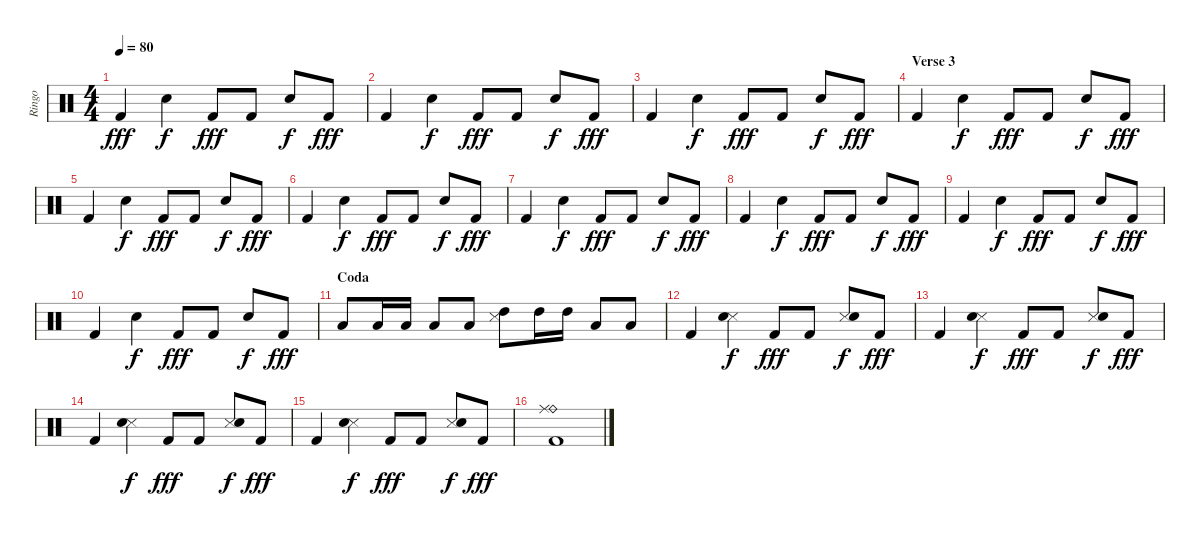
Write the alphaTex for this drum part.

\track ("Ringo" "Ringo") {instrument percussion}
\staff {score}
\articulation defaults
\ts (4 4)
\tempo 80
\clef neutral
\ks c "Kick (hit) 2".4{dy fff} "Snare (hit) 2".4{dy f} "Kick (hit) 2".8{dy fff} "Kick (hit) 2".8 "Snare (hit) 2".8{dy f} "Kick (hit) 2".8{dy fff}
|
"Kick (hit) 2".4 "Snare (hit) 2".4{dy f} "Kick (hit) 2".8{dy fff} "Kick (hit) 2".8 "Snare (hit) 2".8{dy f} "Kick (hit) 2".8{dy fff} |
"Kick (hit) 2".4 "Snare (hit) 2".4{dy f} "Kick (hit) 2".8{dy fff} "Kick (hit) 2".8 "Snare (hit) 2".8{dy f} "Kick (hit) 2".8{dy fff} |
\section ("" "Verse 3")
"Kick (hit) 2".4 "Snare (hit) 2".4{dy f} "Kick (hit) 2".8{dy fff} "Kick (hit) 2".8 "Snare (hit) 2".8{dy f} "Kick (hit) 2".8{dy fff} |
"Kick (hit) 2".4 "Snare (hit) 2".4{dy f} "Kick (hit) 2".8{dy fff} "Kick (hit) 2".8 "Snare (hit) 2".8{dy f} "Kick (hit) 2".8{dy fff} |
"Kick (hit) 2".4 "Snare (hit) 2".4{dy f} "Kick (hit) 2".8{dy fff} "Kick (hit) 2".8 "Snare (hit) 2".8{dy f} "Kick (hit) 2".8{dy fff} |
"Kick (hit) 2".4 "Snare (hit) 2".4{dy f} "Kick (hit) 2".8{dy fff} "Kick (hit) 2".8 "Snare (hit) 2".8{dy f} "Kick (hit) 2".8{dy fff} |
"Kick (hit) 2".4 "Snare (hit) 2".4{dy f} "Kick (hit) 2".8{dy fff} "Kick (hit) 2".8 "Snare (hit) 2".8{dy f} "Kick (hit) 2".8{dy fff} |
"Kick (hit) 2".4 "Snare (hit) 2".4{dy f} "Kick (hit) 2".8{dy fff} "Kick (hit) 2".8 "Snare (hit) 2".8{dy f} "Kick (hit) 2".8{dy fff} |
"Kick (hit) 2".4 "Snare (hit) 2".4{dy f} "Kick (hit) 2".8{dy fff} "Kick (hit) 2".8 "Snare (hit) 2".8{dy f} "Kick (hit) 2".8{dy fff} |
\section ("" "Coda")
"Low Floor Tom (hit)".8 "Low Floor Tom (hit)".16 "Low Floor Tom (hit)".16 "Low Floor Tom (hit)".8 "Low Floor Tom (hit)".8 ("High Tom (hit)" "Snare (side stick) 3").8 "High Tom (hit)".16 "High Tom (hit)".16 "Low Floor Tom (hit)".8 "Low Floor Tom (hit)".8 |
"Kick (hit) 2".4 ("Snare (side stick) 3" "Snare (hit) 2").4{dy f} "Kick (hit) 2".8{dy fff} "Kick (hit) 2".8 ("Snare (side stick) 3" "Snare (hit) 2").8{dy f} "Kick (hit) 2".8{dy fff} |
"Kick (hit) 2".4 ("Snare (side stick) 3" "Snare (hit) 2").4{dy f} "Kick (hit) 2".8{dy fff} "Kick (hit) 2".8 ("Snare (side stick) 3" "Snare (hit) 2").8{dy f} "Kick (hit) 2".8{dy fff} |
"Kick (hit) 2".4 ("Snare (side stick) 3" "Snare (hit) 2").4{dy f} "Kick (hit) 2".8{dy fff} "Kick (hit) 2".8 ("Snare (side stick) 3" "Snare (hit) 2").8{dy f} "Kick (hit) 2".8{dy fff} |
"Kick (hit) 2".4 ("Snare (side stick) 3" "Snare (hit) 2").4{dy f} "Kick (hit) 2".8{dy fff} "Kick (hit) 2".8 ("Snare (side stick) 3" "Snare (hit) 2").8{dy f} "Kick (hit) 2".8{dy fff} |
("Ride (bell)" "Ride (middle)" "Kick (hit) 2").1
